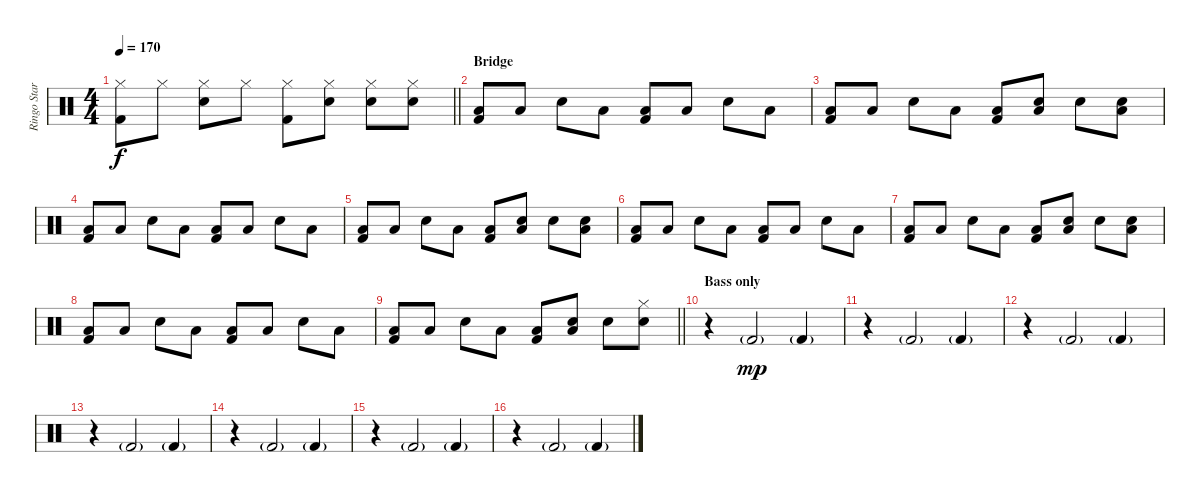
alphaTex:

\track ("Ringo Star (Thomas)" "Ringo Star") {instrument percussion}
\staff {score}
\articulation defaults
\ts (4 4)
\tempo 170
\clef neutral
\barLineRight lightlight
\ks c
("Hi-Hat (closed)" "Kick (hit) 2").8{dy f} "Hi-Hat (closed)".8 ("Hi-Hat (closed)" "Snare (hit) 2").8 "Hi-Hat (closed)".8 ("Hi-Hat (closed)" "Kick (hit) 2").8 ("Hi-Hat (closed)" "Snare (hit) 2").8 ("Hi-Hat (closed)" "Snare (hit) 2").8 ("Hi-Hat (closed)" "Snare (hit) 2").8 |
\section ("" "Bridge")
("Low Tom (hit)" "Kick (hit) 2").8 "Low Tom (hit)".8 "Snare (hit) 2".8 "Low Tom (hit)".8 ("Low Tom (hit)" "Kick (hit) 2").8 "Low Tom (hit)".8 "Snare (hit) 2".8 "Low Tom (hit)".8 |
("Low Tom (hit)" "Kick (hit) 2").8 "Low Tom (hit)".8 "Snare (hit) 2".8 "Low Tom (hit)".8 ("Low Tom (hit)" "Kick (hit) 2").8 ("Low Tom (hit)" "Snare (hit) 2").8 "Snare (hit) 2".8 ("Low Tom (hit)" "Snare (hit) 2").8 |
("Low Tom (hit)" "Kick (hit) 2").8 "Low Tom (hit)".8 "Snare (hit) 2".8 "Low Tom (hit)".8 ("Low Tom (hit)" "Kick (hit) 2").8 "Low Tom (hit)".8 "Snare (hit) 2".8 "Low Tom (hit)".8 |
("Low Tom (hit)" "Kick (hit) 2").8 "Low Tom (hit)".8 "Snare (hit) 2".8 "Low Tom (hit)".8 ("Low Tom (hit)" "Kick (hit) 2").8 ("Low Tom (hit)" "Snare (hit) 2").8 "Snare (hit) 2".8 ("Low Tom (hit)" "Snare (hit) 2").8 |
("Low Tom (hit)" "Kick (hit) 2").8 "Low Tom (hit)".8 "Snare (hit) 2".8 "Low Tom (hit)".8 ("Low Tom (hit)" "Kick (hit) 2").8 "Low Tom (hit)".8 "Snare (hit) 2".8 "Low Tom (hit)".8 |
("Low Tom (hit)" "Kick (hit) 2").8 "Low Tom (hit)".8 "Snare (hit) 2".8 "Low Tom (hit)".8 ("Low Tom (hit)" "Kick (hit) 2").8 ("Low Tom (hit)" "Snare (hit) 2").8 "Snare (hit) 2".8 ("Low Tom (hit)" "Snare (hit) 2").8 |
("Low Tom (hit)" "Kick (hit) 2").8 "Low Tom (hit)".8 "Snare (hit) 2".8 "Low Tom (hit)".8 ("Low Tom (hit)" "Kick (hit) 2").8 "Low Tom (hit)".8 "Snare (hit) 2".8 "Low Tom (hit)".8 |
\barLineRight lightlight
("Low Tom (hit)" "Kick (hit) 2").8 "Low Tom (hit)".8 "Snare (hit) 2".8 "Low Tom (hit)".8 ("Low Tom (hit)" "Kick (hit) 2").8 ("Low Tom (hit)" "Snare (hit) 2").8 "Snare (hit) 2".8 ("Hi-Hat (closed)" "Snare (hit) 2").8 |
\section ("" "Bass only")
r.4 "Kick (hit) 2"{g}.2{dy mp} "Kick (hit) 2"{g}.4 |
r.4 "Kick (hit) 2"{g}.2 "Kick (hit) 2"{g}.4 |
r.4 "Kick (hit) 2"{g}.2 "Kick (hit) 2"{g}.4 |
r.4 "Kick (hit) 2"{g}.2 "Kick (hit) 2"{g}.4 |
r.4 "Kick (hit) 2"{g}.2 "Kick (hit) 2"{g}.4 |
r.4 "Kick (hit) 2"{g}.2 "Kick (hit) 2"{g}.4 |
r.4 "Kick (hit) 2"{g}.2 "Kick (hit) 2"{g}.4
